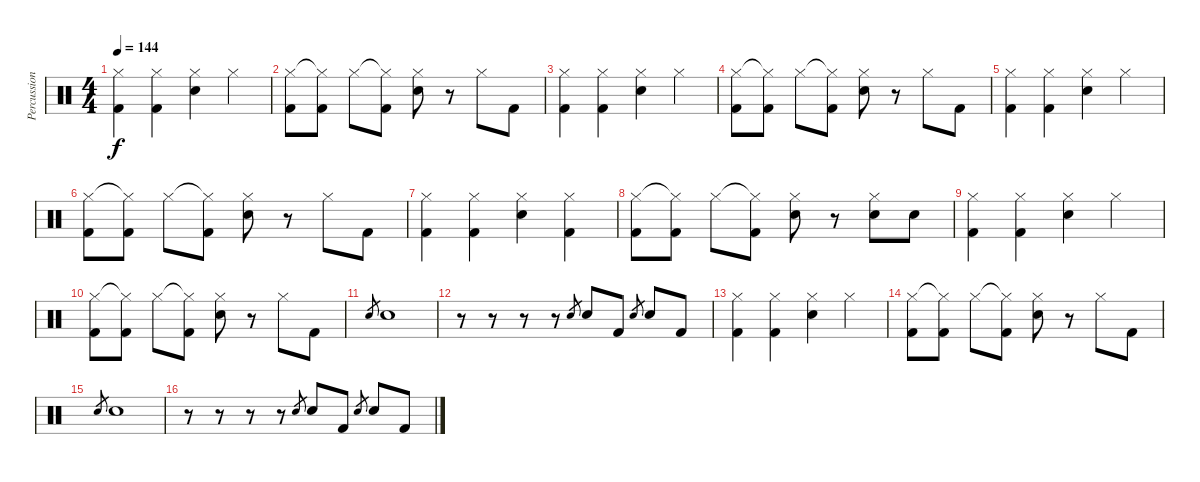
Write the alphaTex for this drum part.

\track ("Percussion" "Percussion") {instrument percussion}
\staff {score}
\articulation defaults
\ts (4 4)
\tempo 144
\clef neutral
\ks c
("Hi-Hat (closed)" "Kick (hit) 2").4{dy f} ("Hi-Hat (closed)" "Kick (hit) 2").4 ("Hi-Hat (closed)" "Snare (hit) 2").4 "Hi-Hat (closed)".4 |
("Hi-Hat (closed)" "Kick (hit) 2").8 ("Hi-Hat (closed)"{t} "Kick (hit) 2").8 "Hi-Hat (closed)".8 ("Hi-Hat (closed)"{t} "Kick (hit) 2").8 ("Hi-Hat (closed)" "Snare (hit) 2").8 r.8 "Hi-Hat (closed)".8 "Kick (hit) 2".8 |
("Hi-Hat (closed)" "Kick (hit) 2").4 ("Hi-Hat (closed)" "Kick (hit) 2").4 ("Hi-Hat (closed)" "Snare (hit) 2").4 "Hi-Hat (closed)".4 |
("Hi-Hat (closed)" "Kick (hit) 2").8 ("Hi-Hat (closed)"{t} "Kick (hit) 2").8 "Hi-Hat (closed)".8 ("Hi-Hat (closed)"{t} "Kick (hit) 2").8 ("Hi-Hat (closed)" "Snare (hit) 2").8 r.8 "Hi-Hat (closed)".8 "Kick (hit) 2".8 |
("Hi-Hat (closed)" "Kick (hit) 2").4 ("Hi-Hat (closed)" "Kick (hit) 2").4 ("Hi-Hat (closed)" "Snare (hit) 2").4 "Hi-Hat (closed)".4 |
("Hi-Hat (closed)" "Kick (hit) 2").8 ("Hi-Hat (closed)"{t} "Kick (hit) 2").8 "Hi-Hat (closed)".8 ("Hi-Hat (closed)"{t} "Kick (hit) 2").8 ("Hi-Hat (closed)" "Snare (hit) 2").8 r.8 "Hi-Hat (closed)".8 "Kick (hit) 2".8 |
("Hi-Hat (closed)" "Kick (hit) 2").4 ("Hi-Hat (closed)" "Kick (hit) 2").4 ("Hi-Hat (closed)" "Snare (hit) 2").4 ("Hi-Hat (closed)" "Kick (hit) 2").4 |
("Hi-Hat (closed)" "Kick (hit) 2").8 ("Hi-Hat (closed)"{t} "Kick (hit) 2").8 "Hi-Hat (closed)".8 ("Hi-Hat (closed)"{t} "Kick (hit) 2").8 ("Hi-Hat (closed)" "Snare (hit) 2").8 r.8 ("Hi-Hat (closed)" "Snare (hit) 2").8 "Snare (hit) 2".8 |
("Hi-Hat (closed)" "Kick (hit) 2").4 ("Hi-Hat (closed)" "Kick (hit) 2").4 ("Hi-Hat (closed)" "Snare (hit) 2").4 "Hi-Hat (closed)".4 |
("Hi-Hat (closed)" "Kick (hit) 2").8 ("Hi-Hat (closed)"{t} "Kick (hit) 2").8 "Hi-Hat (closed)".8 ("Hi-Hat (closed)"{t} "Kick (hit) 2").8 ("Hi-Hat (closed)" "Snare (hit) 2").8 r.8 "Hi-Hat (closed)".8 "Kick (hit) 2".8 |
"Snare (hit) 2".8{gr} "Snare (hit) 2".1 |
r.8 r.8 r.8 r.8 "Snare (hit) 2".8{gr} "Snare (hit) 2".8 "Kick (hit) 2".8 "Snare (hit) 2".8{gr} "Snare (hit) 2".8 "Kick (hit) 2".8 |
("Hi-Hat (closed)" "Kick (hit) 2").4 ("Hi-Hat (closed)" "Kick (hit) 2").4 ("Hi-Hat (closed)" "Snare (hit) 2").4 "Hi-Hat (closed)".4 |
("Hi-Hat (closed)" "Kick (hit) 2").8 ("Hi-Hat (closed)"{t} "Kick (hit) 2").8 "Hi-Hat (closed)".8 ("Hi-Hat (closed)"{t} "Kick (hit) 2").8 ("Hi-Hat (closed)" "Snare (hit) 2").8 r.8 "Hi-Hat (closed)".8 "Kick (hit) 2".8 |
"Snare (hit) 2".8{gr} "Snare (hit) 2".1 |
r.8 r.8 r.8 r.8 "Snare (hit) 2".8{gr} "Snare (hit) 2".8 "Kick (hit) 2".8 "Snare (hit) 2".8{gr} "Snare (hit) 2".8 "Kick (hit) 2".8
